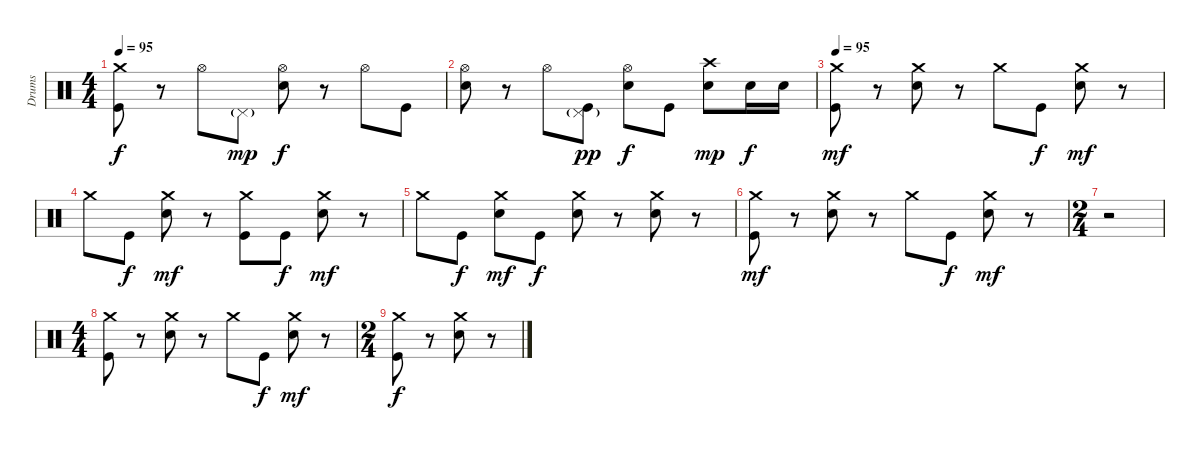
\track ("Drums" "Drums") {instrument percussion}
\staff {score}
\articulation defaults
\ts (4 4)
\tempo 95
\clef neutral
\ks c
("Crash medium (hit)" "Kick (hit)").8{dy f} r.8 "Hi-Hat (open)".8 "Pedal Hi-Hat (hit)"{g}.8{dy mp} ("Hi-Hat (open)" "Snare (hit) 2").8{dy f} r.8 "Hi-Hat (open)".8 "Kick (hit)".8 |
("Hi-Hat (open)" "Snare (hit) 2").8 r.8 "Hi-Hat (open)".8 ("Pedal Hi-Hat (hit)"{g} "Kick (hit)").8{dy pp} ("Hi-Hat (open)" "Snare (hit) 2").8{dy f} "Kick (hit)".8 ("Crash high (hit)" "Snare (hit) 2").8{dy mp} "Snare (hit) 2".16{dy f} "Snare (hit) 2".16 |
\tempo 95
("Crash medium (hit)" "Kick (hit)").8{dy mf} r.8 ("Crash medium (hit)" "Snare (hit) 2").8 r.8 "Crash medium (hit)".8 "Kick (hit)".8{dy f} ("Crash medium (hit)" "Snare (hit) 2").8{dy mf} r.8 |
"Crash medium (hit)".8 "Kick (hit)".8{dy f} ("Crash medium (hit)" "Snare (hit) 2").8{dy mf} r.8 ("Crash medium (hit)" "Kick (hit)").8 "Kick (hit)".8{dy f} ("Crash medium (hit)" "Snare (hit) 2").8{dy mf} r.8 |
"Crash medium (hit)".8 "Kick (hit)".8{dy f} ("Crash medium (hit)" "Snare (hit) 2").8{dy mf} "Kick (hit)".8{dy f} ("Crash medium (hit)" "Snare (hit) 2").8 r.8 ("Crash medium (hit)" "Snare (hit) 2").8 r.8 |
("Crash medium (hit)" "Kick (hit)").8{dy mf} r.8 ("Crash medium (hit)" "Snare (hit) 2").8 r.8 "Crash medium (hit)".8 "Kick (hit)".8{dy f} ("Crash medium (hit)" "Snare (hit) 2").8{dy mf} r.8 |
\ts (2 4)
r.2 |
\ts (4 4)
("Crash medium (hit)" "Kick (hit)").8 r.8 ("Crash medium (hit)" "Snare (hit) 2").8 r.8 "Crash medium (hit)".8 "Kick (hit)".8{dy f} ("Crash medium (hit)" "Snare (hit) 2").8{dy mf} r.8 |
\ts (2 4)
("Crash medium (hit)" "Kick (hit)").8{dy f} r.8 ("Crash medium (hit)" "Snare (hit) 2").8 r.8
